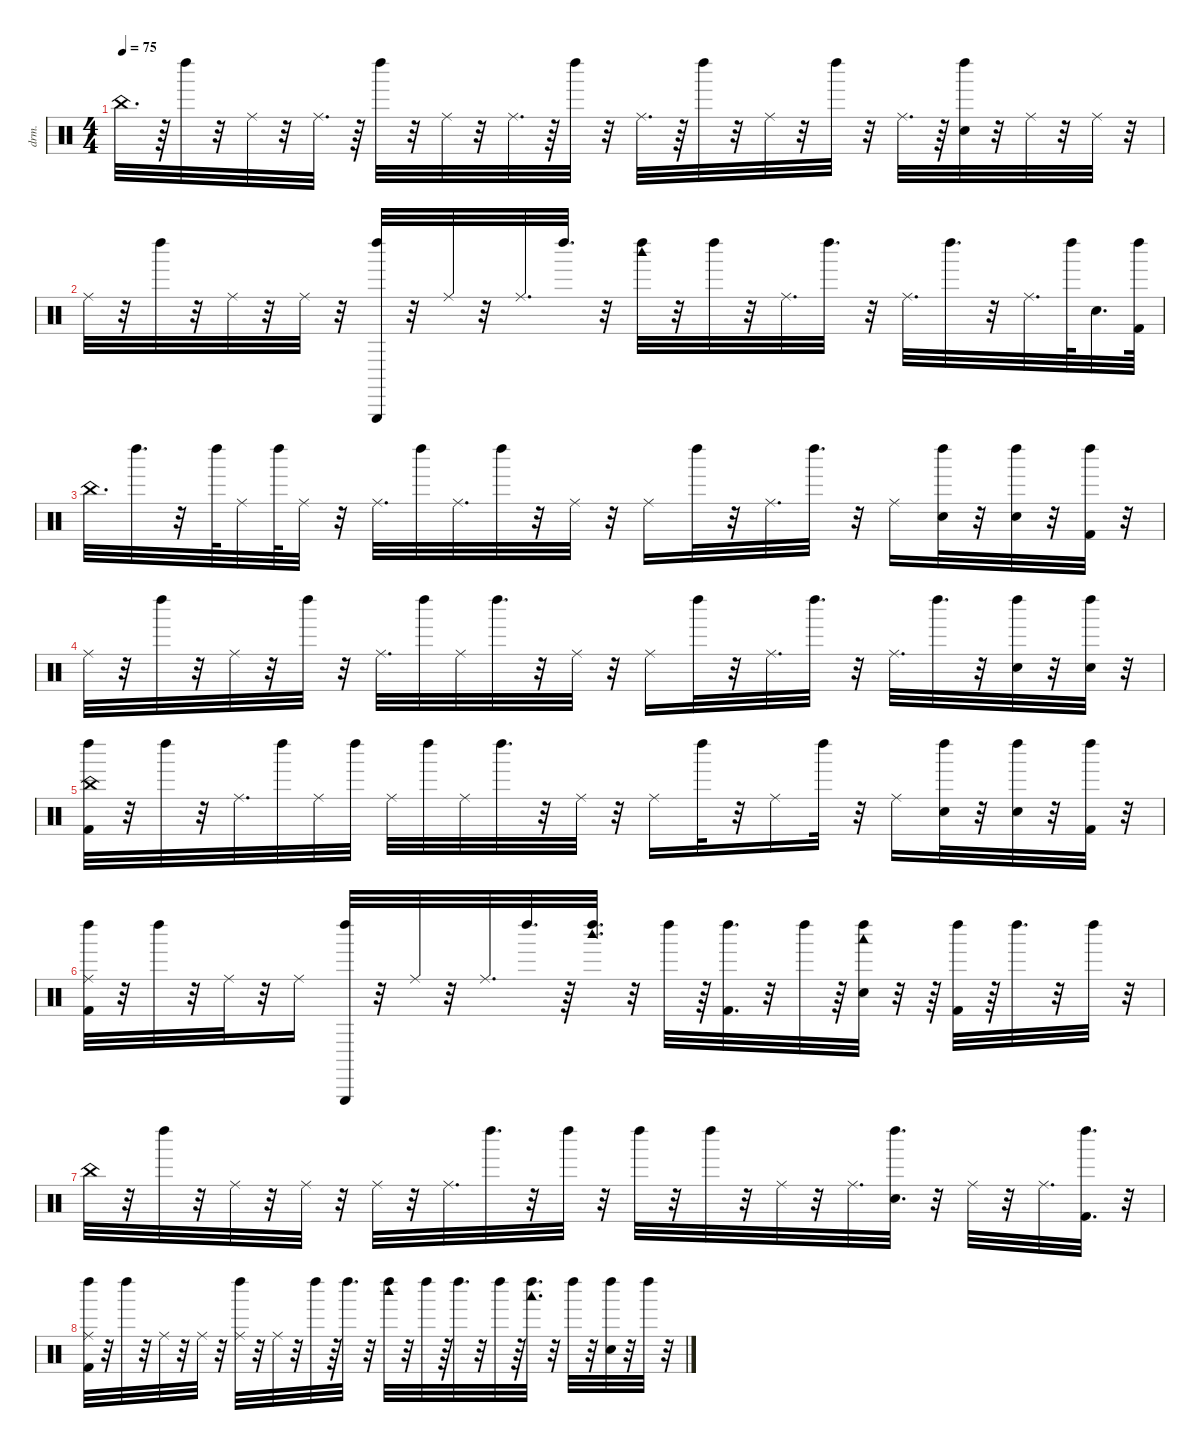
\defaultSystemsLayout 4
\hideDynamics
\bracketExtendMode nobrackets
\otherSystemsTrackNameOrientation horizontal
\track ("Drums" "drm.") {instrument percussion}
\staff {score}
\articulation defaults
\ts (4 4)
\tempo 75
\clef neutral
\ks c "China (hit)".32{d dy f}
r.64 "Left Maraca (hit)".32 r.32 "Ride (middle)".32 r.32 "Ride (middle)".32{d} r.64 "Left Maraca (hit)".32 r.32 "Ride (middle)".32 r.32 "Ride (middle)".32{d} r.64 "Left Maraca (hit)".32 r.32 "Ride (middle)".32{d} r.64 "Left Maraca (hit)".32 r.32 "Ride (middle)".32 r.32 "Left Maraca (hit)".32 r.32 "Ride (middle)".32{d} r.64 ("Snare (hit) 2" "Left Maraca (hit)").32 r.32 "Ride (middle)".32 r.32 "Ride (middle)".32 r.32 |
"Ride (middle)".32 r.32 "Left Maraca (hit)".32 r.32 "Ride (middle)".32 r.32 "Ride (middle)".32 r.32 ("Triangle (hit)" "Left Maraca (hit)").32 r.32 "Ride (middle)".32 r.32 "Ride (middle)".32{d} "Left Maraca (hit)".32{d} r.32 ("Woodblock high (hit)" "Left Maraca (hit)").32 r.32 "Left Maraca (hit)".32 r.32 "Ride (middle)".32{d} "Left Maraca (hit)".32{d} r.32 "Ride (middle)".32{d} "Left Maraca (hit)".32{d} r.32 "Ride (middle)".32{d} "Left Maraca (hit)".64 "Snare (hit) 2".32{d} ("Kick (hit) 2" "Left Maraca (hit)").64 |
"China (hit)".32{d} "Left Maraca (hit)".32{d} r.32 "Left Maraca (hit)".64 "Ride (middle)".32 "Left Maraca (hit)".64 "Ride (middle)".32 r.32 "Ride (middle)".32{d} "Left Maraca (hit)".32 "Ride (middle)".32{d} "Left Maraca (hit)".32 r.32 "Ride (middle)".32 r.32 "Ride (middle)".16 "Left Maraca (hit)".32 r.32 "Ride (middle)".32{d} "Left Maraca (hit)".32{d} r.32 "Ride (middle)".16 ("Snare (hit) 2" "Left Maraca (hit)").32 r.32 ("Snare (hit) 2" "Left Maraca (hit)").32 r.32 ("Kick (hit) 2" "Left Maraca (hit)").32 r.32 |
"Ride (middle)".32 r.32 "Left Maraca (hit)".32 r.32 "Ride (middle)".32 r.32 "Left Maraca (hit)".32 r.32 "Ride (middle)".32{d} "Left Maraca (hit)".32 "Ride (middle)".32 "Left Maraca (hit)".32{d} r.32 "Ride (middle)".32 r.32 "Ride (middle)".16 "Left Maraca (hit)".32 r.32 "Ride (middle)".32{d} "Left Maraca (hit)".32{d} r.32 "Ride (middle)".32{d} "Left Maraca (hit)".32{d} r.32 ("Snare (hit) 2" "Left Maraca (hit)").32 r.32 ("Snare (hit) 2" "Left Maraca (hit)").32 r.32 |
("China (hit)" "Kick (hit) 2" "Left Maraca (hit)").32 r.32 "Left Maraca (hit)".32 r.32 "Ride (middle)".32{d} "Left Maraca (hit)".32 "Ride (middle)".32 "Left Maraca (hit)".32 "Ride (middle)".32 "Left Maraca (hit)".32 "Ride (middle)".32 "Left Maraca (hit)".32{d} r.32 "Ride (middle)".32 r.32 "Ride (middle)".16 "Left Maraca (hit)".32 r.32 "Ride (middle)".16 "Left Maraca (hit)".32 r.32 "Ride (middle)".16 ("Snare (hit) 2" "Left Maraca (hit)").32 r.32 ("Snare (hit) 2" "Left Maraca (hit)").32 r.32 ("Kick (hit) 2" "Left Maraca (hit)").32 r.32 |
("Ride (middle)" "Kick (hit) 2" "Left Maraca (hit)").32 r.32 "Left Maraca (hit)".32 r.32 "Ride (middle)".32 r.32 "Ride (middle)".16 ("Triangle (hit)" "Left Maraca (hit)").32 r.32 "Ride (middle)".32 r.32 "Ride (middle)".32{d} "Left Maraca (hit)".32{d} r.64 ("Woodblock high (hit)" "Left Maraca (hit)").32{d} r.32 "Left Maraca (hit)".32 r.64 ("Left Maraca (hit)" "Kick (hit) 2").32{d} r.32 "Left Maraca (hit)".32 r.64 ("Woodblock low (hit)" "Left Maraca (hit)" "Snare (hit) 2").32 r.32 r.64 ("Left Maraca (hit)" "Kick (hit) 2").32 r.64 "Left Maraca (hit)".32{d} r.32 "Left Maraca (hit)".32 r.32 |
"China (hit)".32 r.32 "Left Maraca (hit)".32 r.32 "Ride (middle)".32 r.32 "Ride (middle)".32 r.32 "Ride (middle)".32 r.32 "Ride (middle)".32{d} "Left Maraca (hit)".32{d} r.32 "Left Maraca (hit)".32 r.32 "Left Maraca (hit)".32 r.32 "Left Maraca (hit)".32 r.32 "Ride (middle)".32 r.32 "Ride (middle)".32{d} ("Snare (hit) 2" "Left Maraca (hit)").32{d} r.32 "Ride (middle)".32 r.32 "Ride (middle)".32{d} ("Kick (hit) 2" "Left Maraca (hit)").32{d} r.32 |
("Ride (middle)" "Kick (hit) 2" "Left Maraca (hit)").32 r.32 "Left Maraca (hit)".32 r.32 "Ride (middle)".32 r.32 "Ride (middle)".32 r.32 ("Ride (middle)" "Left Maraca (hit)").32 r.32 "Ride (middle)".32 r.32 "Left Maraca (hit)".32 r.64 "Left Maraca (hit)".32{d} r.32 ("Woodblock high (hit)" "Left Maraca (hit)").32 r.32 "Left Maraca (hit)".32 r.64 "Left Maraca (hit)".32{d} r.32 "Left Maraca (hit)".32 r.64 ("Woodblock low (hit)" "Left Maraca (hit)").32{d} r.32 "Left Maraca (hit)".32 r.32 ("Hand Clap (hit)" "Left Maraca (hit)").32 r.32 "Left Maraca (hit)".32 r.32
